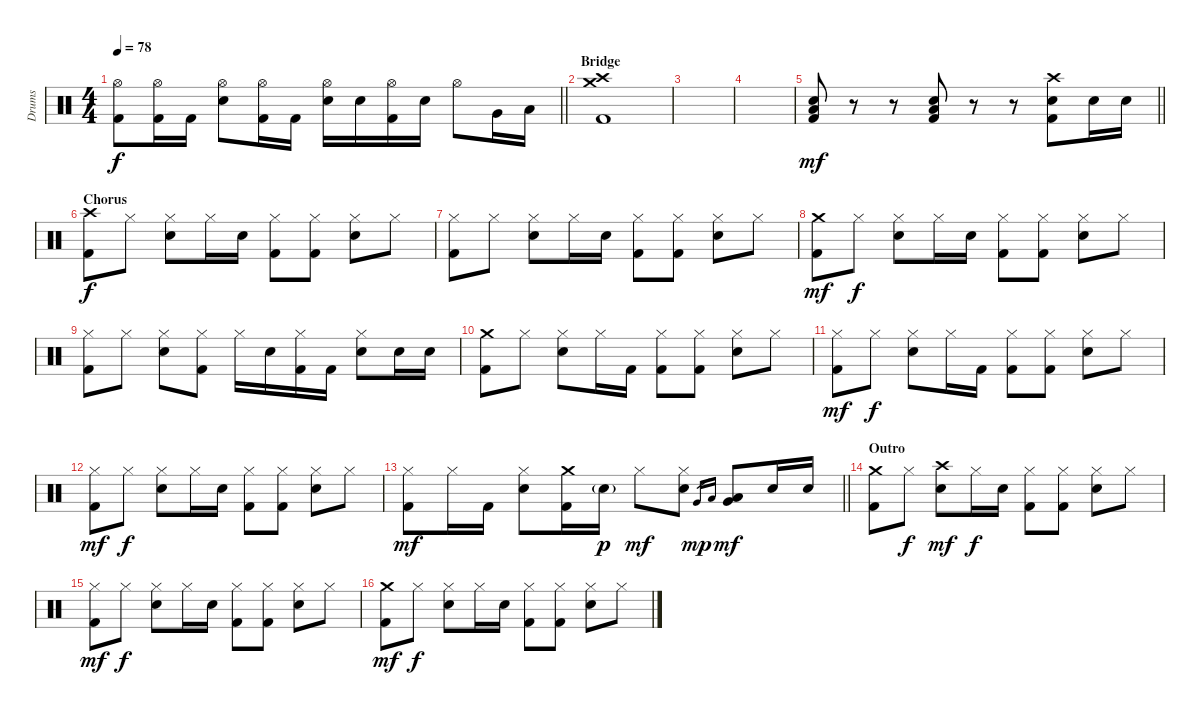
\track ("Drums" "Drums") {instrument percussion}
\staff {score}
\articulation defaults
\ts (4 4)
\tempo 78
\clef neutral
\barLineRight lightlight
\ks c
("Hi-Hat (open)" "Kick (hit) 2").8{dy f} ("Hi-Hat (open)" "Kick (hit) 2").16 "Kick (hit) 2".16 ("Hi-Hat (open)" "Electric Snare (hit)").8 ("Hi-Hat (open)" "Kick (hit) 2").16 "Kick (hit) 2".16 ("Hi-Hat (open)" "Electric Snare (hit)").16 "Electric Snare (hit)".16 ("Hi-Hat (open)" "Kick (hit) 2").16 "Electric Snare (hit)".16 "Hi-Hat (open)".8 "Very Low Tom (hit)".16 "Low Floor Tom (hit)".16 |
\section ("" "Bridge")
("Crash medium (hit)" "Crash high (hit)" "Kick (hit) 2").1 |
|
|
\barLineRight lightlight
("Electric Snare (hit)" "Low Floor Tom (hit)" "Kick (hit) 2").8{dy mf} r.8 r.8 ("Electric Snare (hit)" "Low Floor Tom (hit)" "Kick (hit) 2").8 r.8 r.8 ("Crash high (hit)" "Electric Snare (hit)" "Kick (hit) 2").8 "Electric Snare (hit)".16 "Electric Snare (hit)".16 |
\section ("" "Chorus")
("Crash high (hit)" "Kick (hit) 2").8{dy f} "Hi-Hat (closed)".8 ("Hi-Hat (closed)" "Electric Snare (hit)").8 "Hi-Hat (closed)".16 "Electric Snare (hit)".16 ("Hi-Hat (closed)" "Kick (hit) 2").8 ("Hi-Hat (closed)" "Kick (hit) 2").8 ("Hi-Hat (closed)" "Electric Snare (hit)").8 "Hi-Hat (closed)".8 |
("Hi-Hat (closed)" "Kick (hit) 2").8 "Hi-Hat (closed)".8 ("Hi-Hat (closed)" "Electric Snare (hit)").8 "Hi-Hat (closed)".16 "Electric Snare (hit)".16 ("Hi-Hat (closed)" "Kick (hit) 2").8 ("Hi-Hat (closed)" "Kick (hit) 2").8 ("Hi-Hat (closed)" "Electric Snare (hit)").8 "Hi-Hat (closed)".8 |
("Crash medium (hit)" "Kick (hit) 2").8{dy mf} "Hi-Hat (closed)".8{dy f} ("Hi-Hat (closed)" "Electric Snare (hit)").8 "Hi-Hat (closed)".16 "Electric Snare (hit)".16 ("Hi-Hat (closed)" "Kick (hit) 2").8 ("Hi-Hat (closed)" "Kick (hit) 2").8 ("Hi-Hat (closed)" "Electric Snare (hit)").8 "Hi-Hat (closed)".8 |
("Hi-Hat (closed)" "Kick (hit) 2").8 "Hi-Hat (closed)".8 ("Hi-Hat (closed)" "Electric Snare (hit)").8 ("Hi-Hat (closed)" "Kick (hit) 2").8 "Hi-Hat (closed)".16 "Electric Snare (hit)".16 ("Hi-Hat (closed)" "Kick (hit) 2").16 "Kick (hit) 2".16 ("Hi-Hat (closed)" "Electric Snare (hit)").8 "Electric Snare (hit)".16 "Electric Snare (hit)".16 |
("Crash medium (hit)" "Kick (hit) 2").8 "Hi-Hat (closed)".8 ("Hi-Hat (closed)" "Electric Snare (hit)").8 "Hi-Hat (closed)".16 "Kick (hit) 2".16 ("Hi-Hat (closed)" "Kick (hit) 2").8 ("Hi-Hat (closed)" "Kick (hit) 2").8 ("Hi-Hat (closed)" "Electric Snare (hit)").8 "Hi-Hat (closed)".8 |
("Hi-Hat (closed)" "Kick (hit) 2").8{dy mf} "Hi-Hat (closed)".8{dy f} ("Hi-Hat (closed)" "Electric Snare (hit)").8 "Hi-Hat (closed)".16 "Kick (hit) 2".16 ("Hi-Hat (closed)" "Kick (hit) 2").8 ("Hi-Hat (closed)" "Kick (hit) 2").8 ("Hi-Hat (closed)" "Electric Snare (hit)").8 "Hi-Hat (closed)".8 |
("Hi-Hat (closed)" "Kick (hit) 2").8{dy mf} "Hi-Hat (closed)".8{dy f} ("Hi-Hat (closed)" "Electric Snare (hit)").8 "Hi-Hat (closed)".16 "Electric Snare (hit)".16 ("Hi-Hat (closed)" "Kick (hit) 2").8 ("Hi-Hat (closed)" "Kick (hit) 2").8 ("Hi-Hat (closed)" "Electric Snare (hit)").8 "Hi-Hat (closed)".8 |
\barLineRight lightlight
("Hi-Hat (closed)" "Kick (hit) 2").8{dy mf} "Hi-Hat (closed)".16 "Kick (hit) 2".16 ("Hi-Hat (closed)" "Electric Snare (hit)").8 ("Crash medium (hit)" "Kick (hit) 2").16 "Electric Snare (hit)"{g}.16{dy p} "Hi-Hat (closed)".8{dy mf} ("Hi-Hat (closed)" "Electric Snare (hit)").8 "Very Low Tom (hit)".16{gr dy mp} "Low Floor Tom (hit)".16{gr} ("Very Low Tom (hit)" "Low Floor Tom (hit)").8{dy mf} "Electric Snare (hit)".16 "Electric Snare (hit)".16 |
\section ("" "Outro")
("Crash medium (hit)" "Kick (hit) 2").8 "Hi-Hat (closed)".8{dy f} ("Crash high (hit)" "Electric Snare (hit)").8{dy mf} "Hi-Hat (closed)".16{dy f} "Electric Snare (hit)".16 ("Hi-Hat (closed)" "Kick (hit) 2").8 ("Hi-Hat (closed)" "Kick (hit) 2").8 ("Hi-Hat (closed)" "Electric Snare (hit)").8 "Hi-Hat (closed)".8 |
("Hi-Hat (closed)" "Kick (hit) 2").8{dy mf} "Hi-Hat (closed)".8{dy f} ("Hi-Hat (closed)" "Electric Snare (hit)").8 "Hi-Hat (closed)".16 "Electric Snare (hit)".16 ("Hi-Hat (closed)" "Kick (hit) 2").8 ("Hi-Hat (closed)" "Kick (hit) 2").8 ("Hi-Hat (closed)" "Electric Snare (hit)").8 "Hi-Hat (closed)".8 |
("Crash medium (hit)" "Kick (hit) 2").8{dy mf} "Hi-Hat (closed)".8{dy f} ("Hi-Hat (closed)" "Electric Snare (hit)").8 "Hi-Hat (closed)".16 "Electric Snare (hit)".16 ("Hi-Hat (closed)" "Kick (hit) 2").8 ("Hi-Hat (closed)" "Kick (hit) 2").8 ("Hi-Hat (closed)" "Electric Snare (hit)").8 "Hi-Hat (closed)".8
